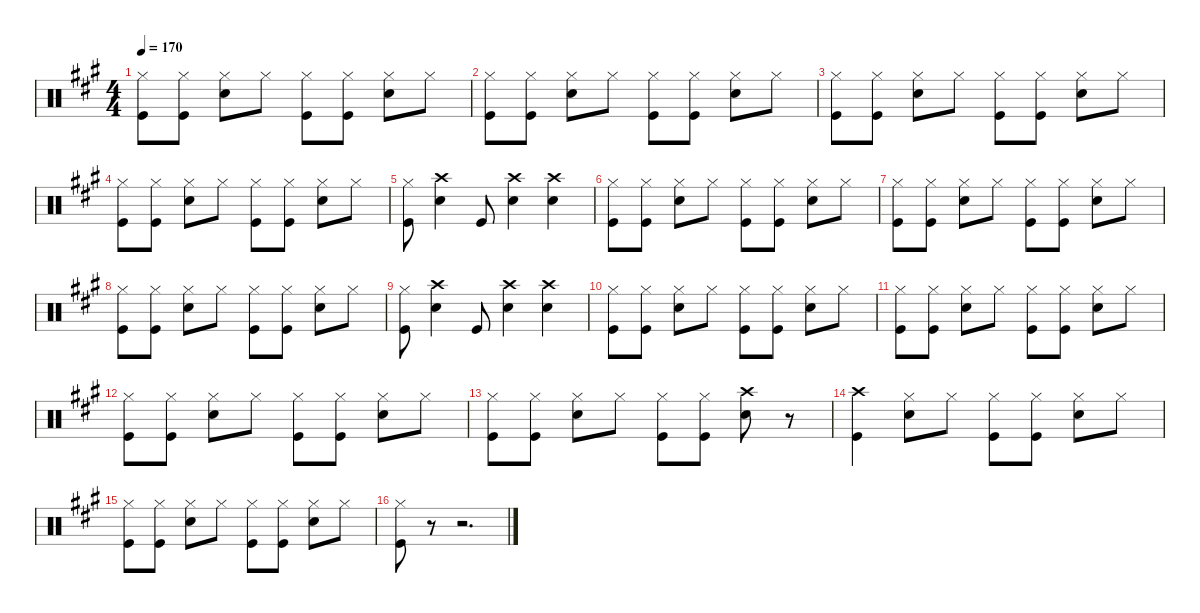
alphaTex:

\defaultSystemsLayout 4
\hideDynamics
\bracketExtendMode nobrackets
\singleTrackTrackNamePolicy hidden
\multiTrackTrackNamePolicy hidden
\firstSystemTrackNameMode fullname
\firstSystemTrackNameOrientation horizontal
\otherSystemsTrackNameOrientation horizontal
\track ("Percussion" "drm.") {defaultSystemsLayout 4 instrument percussion}
\staff {score}
\articulation defaults
\ts (4 4)
\tempo 170
\clef neutral
\ks a
("Hi-Hat (closed)"{acc forcenatural} "Kick (hit)"{acc forcenatural}).8{dy f beam Down} ("Hi-Hat (closed)"{acc forcenatural} "Kick (hit)"{acc forcenatural}).8{beam Down} ("Hi-Hat (closed)"{acc forcenatural} "Snare (hit) 2"{acc forcenatural}).8{beam Down} "Hi-Hat (closed)"{acc forcenatural}.8{beam Down} ("Hi-Hat (closed)"{acc forcenatural} "Kick (hit)"{acc forcenatural}).8{beam Down} ("Hi-Hat (closed)"{acc forcenatural} "Kick (hit)"{acc forcenatural}).8{beam Down} ("Hi-Hat (closed)"{acc forcenatural} "Snare (hit) 2"{acc forcenatural}).8{beam Down} "Hi-Hat (closed)"{acc forcenatural}.8{beam Down} |
("Hi-Hat (closed)"{acc forcenatural} "Kick (hit)"{acc forcenatural}).8{beam Down} ("Hi-Hat (closed)"{acc forcenatural} "Kick (hit)"{acc forcenatural}).8{beam Down} ("Hi-Hat (closed)"{acc forcenatural} "Snare (hit) 2"{acc forcenatural}).8{beam Down} "Hi-Hat (closed)"{acc forcenatural}.8{beam Down} ("Hi-Hat (closed)"{acc forcenatural} "Kick (hit)"{acc forcenatural}).8{beam Down} ("Hi-Hat (closed)"{acc forcenatural} "Kick (hit)"{acc forcenatural}).8{beam Down} ("Hi-Hat (closed)"{acc forcenatural} "Snare (hit) 2"{acc forcenatural}).8{beam Down} "Hi-Hat (closed)"{acc forcenatural}.8{beam Down} |
("Hi-Hat (closed)"{acc forcenatural} "Kick (hit)"{acc forcenatural}).8{beam Down} ("Hi-Hat (closed)"{acc forcenatural} "Kick (hit)"{acc forcenatural}).8{beam Down} ("Hi-Hat (closed)"{acc forcenatural} "Snare (hit) 2"{acc forcenatural}).8{beam Down} "Hi-Hat (closed)"{acc forcenatural}.8{beam Down} ("Hi-Hat (closed)"{acc forcenatural} "Kick (hit)"{acc forcenatural}).8{beam Down} ("Hi-Hat (closed)"{acc forcenatural} "Kick (hit)"{acc forcenatural}).8{beam Down} ("Hi-Hat (closed)"{acc forcenatural} "Snare (hit) 2"{acc forcenatural}).8{beam Down} "Hi-Hat (closed)"{acc forcenatural}.8{beam Down} |
("Hi-Hat (closed)"{acc forcenatural} "Kick (hit)"{acc forcenatural}).8{beam Down} ("Hi-Hat (closed)"{acc forcenatural} "Kick (hit)"{acc forcenatural}).8{beam Down} ("Hi-Hat (closed)"{acc forcenatural} "Snare (hit) 2"{acc forcenatural}).8{beam Down} "Hi-Hat (closed)"{acc forcenatural}.8{beam Down} ("Hi-Hat (closed)"{acc forcenatural} "Kick (hit)"{acc forcenatural}).8{beam Down} ("Hi-Hat (closed)"{acc forcenatural} "Kick (hit)"{acc forcenatural}).8{beam Down} ("Hi-Hat (closed)"{acc forcenatural} "Snare (hit) 2"{acc forcenatural}).8{beam Down} "Hi-Hat (closed)"{acc forcenatural}.8{beam Down} |
("Hi-Hat (closed)"{acc forcenatural} "Kick (hit)"{acc forcenatural}).8{beam Down} ("Crash high (hit)"{acc forcenatural} "Snare (hit) 2"{acc forcenatural}).4{beam Down} "Kick (hit)"{acc forcenatural}.8{beam Up} ("Crash high (hit)"{acc forcenatural} "Snare (hit) 2"{acc forcenatural}).4{beam Down} ("Crash high (hit)"{acc forcenatural} "Snare (hit) 2"{acc forcenatural}).4{beam Down} |
("Hi-Hat (closed)"{acc forcenatural} "Kick (hit)"{acc forcenatural}).8{beam Down} ("Hi-Hat (closed)"{acc forcenatural} "Kick (hit)"{acc forcenatural}).8{beam Down} ("Hi-Hat (closed)"{acc forcenatural} "Snare (hit) 2"{acc forcenatural}).8{beam Down} "Hi-Hat (closed)"{acc forcenatural}.8{beam Down} ("Hi-Hat (closed)"{acc forcenatural} "Kick (hit)"{acc forcenatural}).8{beam Down} ("Hi-Hat (closed)"{acc forcenatural} "Kick (hit)"{acc forcenatural}).8{beam Down} ("Hi-Hat (closed)"{acc forcenatural} "Snare (hit) 2"{acc forcenatural}).8{beam Down} "Hi-Hat (closed)"{acc forcenatural}.8{beam Down} |
("Hi-Hat (closed)"{acc forcenatural} "Kick (hit)"{acc forcenatural}).8{beam Down} ("Hi-Hat (closed)"{acc forcenatural} "Kick (hit)"{acc forcenatural}).8{beam Down} ("Hi-Hat (closed)"{acc forcenatural} "Snare (hit) 2"{acc forcenatural}).8{beam Down} "Hi-Hat (closed)"{acc forcenatural}.8{beam Down} ("Hi-Hat (closed)"{acc forcenatural} "Kick (hit)"{acc forcenatural}).8{beam Down} ("Hi-Hat (closed)"{acc forcenatural} "Kick (hit)"{acc forcenatural}).8{beam Down} ("Hi-Hat (closed)"{acc forcenatural} "Snare (hit) 2"{acc forcenatural}).8{beam Down} "Hi-Hat (closed)"{acc forcenatural}.8{beam Down} |
("Hi-Hat (closed)"{acc forcenatural} "Kick (hit)"{acc forcenatural}).8{beam Down} ("Hi-Hat (closed)"{acc forcenatural} "Kick (hit)"{acc forcenatural}).8{beam Down} ("Hi-Hat (closed)"{acc forcenatural} "Snare (hit) 2"{acc forcenatural}).8{beam Down} "Hi-Hat (closed)"{acc forcenatural}.8{beam Down} ("Hi-Hat (closed)"{acc forcenatural} "Kick (hit)"{acc forcenatural}).8{beam Down} ("Hi-Hat (closed)"{acc forcenatural} "Kick (hit)"{acc forcenatural}).8{beam Down} ("Hi-Hat (closed)"{acc forcenatural} "Snare (hit) 2"{acc forcenatural}).8{beam Down} "Hi-Hat (closed)"{acc forcenatural}.8{beam Down} |
("Hi-Hat (closed)"{acc forcenatural} "Kick (hit)"{acc forcenatural}).8{beam Down} ("Crash high (hit)"{acc forcenatural} "Snare (hit) 2"{acc forcenatural}).4{beam Down} "Kick (hit)"{acc forcenatural}.8{beam Up} ("Crash high (hit)"{acc forcenatural} "Snare (hit) 2"{acc forcenatural}).4{beam Down} ("Crash high (hit)"{acc forcenatural} "Snare (hit) 2"{acc forcenatural}).4{beam Down} |
("Hi-Hat (closed)"{acc forcenatural} "Kick (hit)"{acc forcenatural}).8{beam Down} ("Hi-Hat (closed)"{acc forcenatural} "Kick (hit)"{acc forcenatural}).8{beam Down} ("Hi-Hat (closed)"{acc forcenatural} "Snare (hit) 2"{acc forcenatural}).8{beam Down} "Hi-Hat (closed)"{acc forcenatural}.8{beam Down} ("Hi-Hat (closed)"{acc forcenatural} "Kick (hit)"{acc forcenatural}).8{beam Down} ("Hi-Hat (closed)"{acc forcenatural} "Kick (hit)"{acc forcenatural}).8{beam Down} ("Hi-Hat (closed)"{acc forcenatural} "Snare (hit) 2"{acc forcenatural}).8{beam Down} "Hi-Hat (closed)"{acc forcenatural}.8{beam Down} |
("Hi-Hat (closed)"{acc forcenatural} "Kick (hit)"{acc forcenatural}).8{beam Down} ("Hi-Hat (closed)"{acc forcenatural} "Kick (hit)"{acc forcenatural}).8{beam Down} ("Hi-Hat (closed)"{acc forcenatural} "Snare (hit) 2"{acc forcenatural}).8{beam Down} "Hi-Hat (closed)"{acc forcenatural}.8{beam Down} ("Hi-Hat (closed)"{acc forcenatural} "Kick (hit)"{acc forcenatural}).8{beam Down} ("Hi-Hat (closed)"{acc forcenatural} "Kick (hit)"{acc forcenatural}).8{beam Down} ("Hi-Hat (closed)"{acc forcenatural} "Snare (hit) 2"{acc forcenatural}).8{beam Down} "Hi-Hat (closed)"{acc forcenatural}.8{beam Down} |
("Hi-Hat (closed)"{acc forcenatural} "Kick (hit)"{acc forcenatural}).8{beam Down} ("Hi-Hat (closed)"{acc forcenatural} "Kick (hit)"{acc forcenatural}).8{beam Down} ("Hi-Hat (closed)"{acc forcenatural} "Snare (hit) 2"{acc forcenatural}).8{beam Down} "Hi-Hat (closed)"{acc forcenatural}.8{beam Down} ("Hi-Hat (closed)"{acc forcenatural} "Kick (hit)"{acc forcenatural}).8{beam Down} ("Hi-Hat (closed)"{acc forcenatural} "Kick (hit)"{acc forcenatural}).8{beam Down} ("Hi-Hat (closed)"{acc forcenatural} "Snare (hit) 2"{acc forcenatural}).8{beam Down} "Hi-Hat (closed)"{acc forcenatural}.8{beam Down} |
("Hi-Hat (closed)"{acc forcenatural} "Kick (hit)"{acc forcenatural}).8{beam Down} ("Hi-Hat (closed)"{acc forcenatural} "Kick (hit)"{acc forcenatural}).8{beam Down} ("Hi-Hat (closed)"{acc forcenatural} "Snare (hit) 2"{acc forcenatural}).8{beam Down} "Hi-Hat (closed)"{acc forcenatural}.8{beam Down} ("Hi-Hat (closed)"{acc forcenatural} "Kick (hit)"{acc forcenatural}).8{beam Down} ("Hi-Hat (closed)"{acc forcenatural} "Kick (hit)"{acc forcenatural}).8{beam Down} ("Crash high (hit)"{acc forcenatural} "Snare (hit) 2"{acc forcenatural}).8{beam Down} r.8{beam Down} |
("Crash high (hit)"{acc forcenatural} "Kick (hit)"{acc forcenatural}).4{beam Down} ("Hi-Hat (closed)"{acc forcenatural} "Snare (hit) 2"{acc forcenatural}).8{beam Down} "Hi-Hat (closed)"{acc forcenatural}.8{beam Down} ("Hi-Hat (closed)"{acc forcenatural} "Kick (hit)"{acc forcenatural}).8{beam Down} ("Hi-Hat (closed)"{acc forcenatural} "Kick (hit)"{acc forcenatural}).8{beam Down} ("Hi-Hat (closed)"{acc forcenatural} "Snare (hit) 2"{acc forcenatural}).8{beam Down} "Hi-Hat (closed)"{acc forcenatural}.8{beam Down} |
("Hi-Hat (closed)"{acc forcenatural} "Kick (hit)"{acc forcenatural}).8{beam Down} ("Hi-Hat (closed)"{acc forcenatural} "Kick (hit)"{acc forcenatural}).8{beam Down} ("Hi-Hat (closed)"{acc forcenatural} "Snare (hit) 2"{acc forcenatural}).8{beam Down} "Hi-Hat (closed)"{acc forcenatural}.8{beam Down} ("Hi-Hat (closed)"{acc forcenatural} "Kick (hit)"{acc forcenatural}).8{beam Down} ("Hi-Hat (closed)"{acc forcenatural} "Kick (hit)"{acc forcenatural}).8{beam Down} ("Hi-Hat (closed)"{acc forcenatural} "Snare (hit) 2"{acc forcenatural}).8{beam Down} "Hi-Hat (closed)"{acc forcenatural}.8{beam Down} |
("Hi-Hat (closed)"{acc forcenatural} "Kick (hit)"{acc forcenatural}).8{beam Down} r.8{beam Down} r.2{d beam Down}
